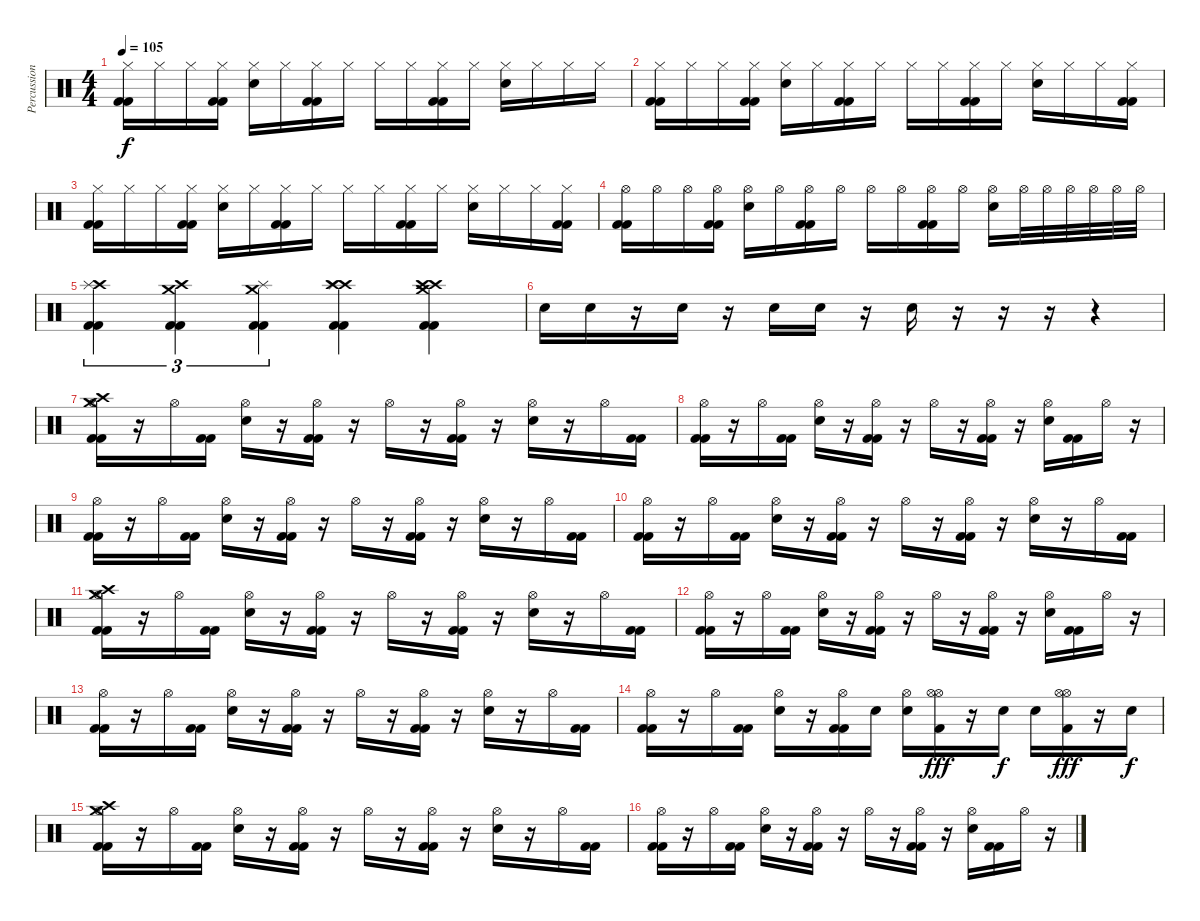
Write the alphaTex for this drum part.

\track ("Percussion" "Percussion") {instrument percussion}
\staff {score}
\articulation defaults
\ts (4 4)
\tempo 105
\clef neutral
\ks c
("Hi-Hat (closed)" "Kick (hit) 2" "Kick (hit) 2").16{dy f} "Hi-Hat (closed)".16 "Hi-Hat (closed)".16 ("Hi-Hat (closed)" "Kick (hit) 2" "Kick (hit) 2").16 ("Hi-Hat (closed)" "Electric Snare (hit)").16 "Hi-Hat (closed)".16 ("Hi-Hat (closed)" "Kick (hit) 2" "Kick (hit) 2").16 "Hi-Hat (closed)".16 "Hi-Hat (closed)".16 "Hi-Hat (closed)".16 ("Hi-Hat (closed)" "Kick (hit) 2" "Kick (hit) 2").16 "Hi-Hat (closed)".16 ("Hi-Hat (closed)" "Electric Snare (hit)").16 "Hi-Hat (closed)".16 "Hi-Hat (closed)".16 "Hi-Hat (closed)".16 |
("Hi-Hat (closed)" "Kick (hit) 2" "Kick (hit) 2").16 "Hi-Hat (closed)".16 "Hi-Hat (closed)".16 ("Hi-Hat (closed)" "Kick (hit) 2" "Kick (hit) 2").16 ("Hi-Hat (closed)" "Electric Snare (hit)").16 "Hi-Hat (closed)".16 ("Hi-Hat (closed)" "Kick (hit) 2" "Kick (hit) 2").16 "Hi-Hat (closed)".16 "Hi-Hat (closed)".16 "Hi-Hat (closed)".16 ("Hi-Hat (closed)" "Kick (hit) 2" "Kick (hit) 2").16 "Hi-Hat (closed)".16 ("Hi-Hat (closed)" "Electric Snare (hit)").16 "Hi-Hat (closed)".16 "Hi-Hat (closed)".16 ("Hi-Hat (closed)" "Kick (hit) 2" "Kick (hit) 2").16 |
("Hi-Hat (closed)" "Kick (hit) 2" "Kick (hit) 2").16 "Hi-Hat (closed)".16 "Hi-Hat (closed)".16 ("Hi-Hat (closed)" "Kick (hit) 2" "Kick (hit) 2").16 ("Hi-Hat (closed)" "Electric Snare (hit)").16 "Hi-Hat (closed)".16 ("Hi-Hat (closed)" "Kick (hit) 2" "Kick (hit) 2").16 "Hi-Hat (closed)".16 "Hi-Hat (closed)".16 "Hi-Hat (closed)".16 ("Hi-Hat (closed)" "Kick (hit) 2" "Kick (hit) 2").16 "Hi-Hat (closed)".16 ("Hi-Hat (closed)" "Electric Snare (hit)").16 "Hi-Hat (closed)".16 "Hi-Hat (closed)".16 ("Hi-Hat (closed)" "Kick (hit) 2" "Kick (hit) 2").16 |
("Hi-Hat (open)" "Kick (hit) 2" "Kick (hit) 2").16 "Hi-Hat (open)".16 "Hi-Hat (open)".16 ("Hi-Hat (open)" "Kick (hit) 2" "Kick (hit) 2").16 ("Hi-Hat (open)" "Electric Snare (hit)").16 "Hi-Hat (open)".16 ("Hi-Hat (open)" "Kick (hit) 2" "Kick (hit) 2").16 "Hi-Hat (open)".16 "Hi-Hat (open)".16 "Hi-Hat (open)".16 ("Hi-Hat (open)" "Kick (hit) 2" "Kick (hit) 2").16 "Hi-Hat (open)".16 ("Hi-Hat (open)" "Electric Snare (hit)").16 "Hi-Hat (open)".32 "Hi-Hat (open)".32 "Hi-Hat (open)".32 "Hi-Hat (open)".32 "Hi-Hat (open)".32 "Hi-Hat (open)".32 |
("Crash high (hit)" "Splash (hit)" "Kick (hit) 2" "Kick (hit) 2").4{tu (3 2)} ("Crash medium (hit)" "Crash high (hit)" "Kick (hit) 2" "Kick (hit) 2").4{tu (3 2)} ("Splash (hit)" "Crash medium (hit)" "Kick (hit) 2" "Kick (hit) 2").4{tu (3 2)} ("Crash high (hit)" "Crash high (hit)" "Splash (hit)" "Kick (hit) 2" "Kick (hit) 2").4 ("Crash high (hit)" "Crash high (hit)" "Crash medium (hit)" "Kick (hit) 2" "Kick (hit) 2").4 |
"Electric Snare (hit)".16 "Electric Snare (hit)".16 r.16 "Electric Snare (hit)".16 r.16 "Electric Snare (hit)".16 "Electric Snare (hit)".16 r.16 "Electric Snare (hit)".16 r.16 r.16 r.16 r.4 |
("Hi-Hat (open)" "Crash high (hit)" "Crash medium (hit)" "Kick (hit) 2" "Kick (hit) 2").16 r.16 "Hi-Hat (open)".16 ("Kick (hit) 2" "Kick (hit) 2").16 ("Hi-Hat (open)" "Electric Snare (hit)").16 r.16 ("Hi-Hat (open)" "Kick (hit) 2" "Kick (hit) 2").16 r.16 "Hi-Hat (open)".16 r.16 ("Hi-Hat (open)" "Kick (hit) 2" "Kick (hit) 2").16 r.16 ("Hi-Hat (open)" "Electric Snare (hit)").16 r.16 "Hi-Hat (open)".16 ("Kick (hit) 2" "Kick (hit) 2").16 |
("Hi-Hat (open)" "Kick (hit) 2" "Kick (hit) 2").16 r.16 "Hi-Hat (open)".16 ("Kick (hit) 2" "Kick (hit) 2").16 ("Hi-Hat (open)" "Electric Snare (hit)").16 r.16 ("Hi-Hat (open)" "Kick (hit) 2" "Kick (hit) 2").16 r.16 "Hi-Hat (open)".16 r.16 ("Hi-Hat (open)" "Kick (hit) 2" "Kick (hit) 2").16 r.16 ("Hi-Hat (open)" "Electric Snare (hit)").16 ("Kick (hit) 2" "Kick (hit) 2").16 "Hi-Hat (open)".16 r.16 |
("Hi-Hat (open)" "Kick (hit) 2" "Kick (hit) 2").16 r.16 "Hi-Hat (open)".16 ("Kick (hit) 2" "Kick (hit) 2").16 ("Hi-Hat (open)" "Electric Snare (hit)").16 r.16 ("Hi-Hat (open)" "Kick (hit) 2" "Kick (hit) 2").16 r.16 "Hi-Hat (open)".16 r.16 ("Hi-Hat (open)" "Kick (hit) 2" "Kick (hit) 2").16 r.16 ("Hi-Hat (open)" "Electric Snare (hit)").16 r.16 "Hi-Hat (open)".16 ("Kick (hit) 2" "Kick (hit) 2").16 |
("Hi-Hat (open)" "Kick (hit) 2" "Kick (hit) 2").16 r.16 "Hi-Hat (open)".16 ("Kick (hit) 2" "Kick (hit) 2").16 ("Hi-Hat (open)" "Electric Snare (hit)").16 r.16 ("Hi-Hat (open)" "Kick (hit) 2" "Kick (hit) 2").16 r.16 "Hi-Hat (open)".16 r.16 ("Hi-Hat (open)" "Kick (hit) 2" "Kick (hit) 2").16 r.16 ("Hi-Hat (open)" "Electric Snare (hit)").16 r.16 "Hi-Hat (open)".16 ("Kick (hit) 2" "Kick (hit) 2").16 |
("Hi-Hat (open)" "Crash high (hit)" "Crash medium (hit)" "Kick (hit) 2" "Kick (hit) 2").16 r.16 "Hi-Hat (open)".16 ("Kick (hit) 2" "Kick (hit) 2").16 ("Hi-Hat (open)" "Electric Snare (hit)").16 r.16 ("Hi-Hat (open)" "Kick (hit) 2" "Kick (hit) 2").16 r.16 "Hi-Hat (open)".16 r.16 ("Hi-Hat (open)" "Kick (hit) 2" "Kick (hit) 2").16 r.16 ("Hi-Hat (open)" "Electric Snare (hit)").16 r.16 "Hi-Hat (open)".16 ("Kick (hit) 2" "Kick (hit) 2").16 |
("Hi-Hat (open)" "Kick (hit) 2" "Kick (hit) 2").16 r.16 "Hi-Hat (open)".16 ("Kick (hit) 2" "Kick (hit) 2").16 ("Hi-Hat (open)" "Electric Snare (hit)").16 r.16 ("Hi-Hat (open)" "Kick (hit) 2" "Kick (hit) 2").16 r.16 "Hi-Hat (open)".16 r.16 ("Hi-Hat (open)" "Kick (hit) 2" "Kick (hit) 2").16 r.16 ("Hi-Hat (open)" "Electric Snare (hit)").16 ("Kick (hit) 2" "Kick (hit) 2").16 "Hi-Hat (open)".16 r.16 |
("Hi-Hat (open)" "Kick (hit) 2" "Kick (hit) 2").16 r.16 "Hi-Hat (open)".16 ("Kick (hit) 2" "Kick (hit) 2").16 ("Hi-Hat (open)" "Electric Snare (hit)").16 r.16 ("Hi-Hat (open)" "Kick (hit) 2" "Kick (hit) 2").16 r.16 "Hi-Hat (open)".16 r.16 ("Hi-Hat (open)" "Kick (hit) 2" "Kick (hit) 2").16 r.16 ("Hi-Hat (open)" "Electric Snare (hit)").16 r.16 "Hi-Hat (open)".16 ("Kick (hit) 2" "Kick (hit) 2").16 |
("Hi-Hat (open)" "Kick (hit) 2" "Kick (hit) 2").16 r.16 "Hi-Hat (open)".16 ("Kick (hit) 2" "Kick (hit) 2").16 ("Hi-Hat (open)" "Electric Snare (hit)").16 r.16 ("Hi-Hat (open)" "Kick (hit) 2" "Kick (hit) 2").16 "Electric Snare (hit)".16 ("Hi-Hat (open)" "Electric Snare (hit)").16 ("Hi-Hat (open)" "Hi-Hat (open)" "Kick (hit) 2").16{dy fff} r.16 "Electric Snare (hit)".16{dy f} "Electric Snare (hit)".16 ("Hi-Hat (open)" "Hi-Hat (open)" "Kick (hit) 2").16{dy fff} r.16 "Electric Snare (hit)".16{dy f} |
("Hi-Hat (open)" "Crash high (hit)" "Crash medium (hit)" "Kick (hit) 2" "Kick (hit) 2").16 r.16 "Hi-Hat (open)".16 ("Kick (hit) 2" "Kick (hit) 2").16 ("Hi-Hat (open)" "Electric Snare (hit)").16 r.16 ("Hi-Hat (open)" "Kick (hit) 2" "Kick (hit) 2").16 r.16 "Hi-Hat (open)".16 r.16 ("Hi-Hat (open)" "Kick (hit) 2" "Kick (hit) 2").16 r.16 ("Hi-Hat (open)" "Electric Snare (hit)").16 r.16 "Hi-Hat (open)".16 ("Kick (hit) 2" "Kick (hit) 2").16 |
("Hi-Hat (open)" "Kick (hit) 2" "Kick (hit) 2").16 r.16 "Hi-Hat (open)".16 ("Kick (hit) 2" "Kick (hit) 2").16 ("Hi-Hat (open)" "Electric Snare (hit)").16 r.16 ("Hi-Hat (open)" "Kick (hit) 2" "Kick (hit) 2").16 r.16 "Hi-Hat (open)".16 r.16 ("Hi-Hat (open)" "Kick (hit) 2" "Kick (hit) 2").16 r.16 ("Hi-Hat (open)" "Electric Snare (hit)").16 ("Kick (hit) 2" "Kick (hit) 2").16 "Hi-Hat (open)".16 r.16
